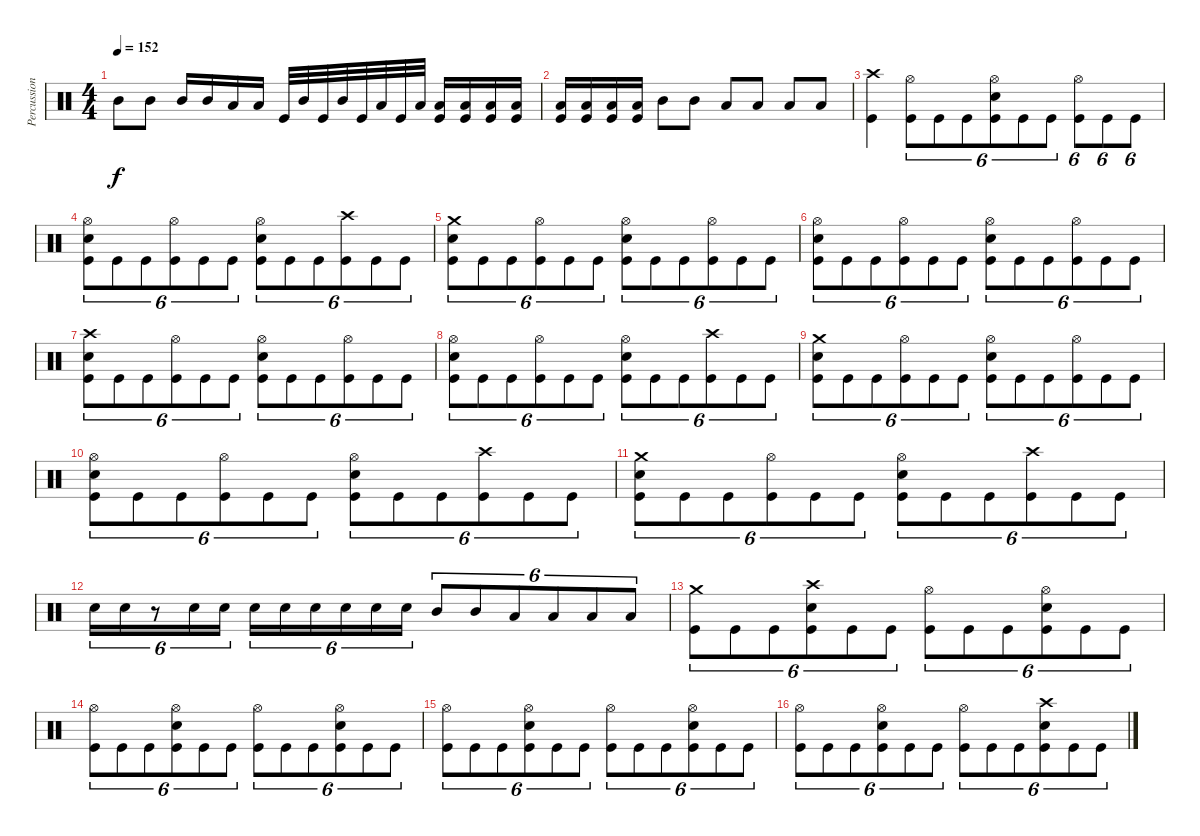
\track ("Percussion" "Percussion") {instrument percussion}
\staff {score}
\articulation defaults
\ts (4 4)
\tempo 152
\clef neutral
\ks c "Mid Tom (hit)".8{dy f} "Mid Tom (hit)".8 "Mid Tom (hit)".16 "Mid Tom (hit)".16 "Low Tom (hit)".16 "Low Tom (hit)".16 "Kick (hit)".32 "Mid Tom (hit)".32 "Kick (hit)".32 "Mid Tom (hit)".32 "Kick (hit)".32 "Low Tom (hit)".32 "Kick (hit)".32 "Low Tom (hit)".32
("Low Floor Tom (hit)" "Kick (hit)").16 ("Low Floor Tom (hit)" "Kick (hit)").16 ("Low Tom (hit)" "Kick (hit)").16 ("Low Tom (hit)" "Kick (hit)").16 |
("Low Floor Tom (hit)" "Kick (hit)").16 ("Low Tom (hit)" "Kick (hit)").16 ("Low Floor Tom (hit)" "Kick (hit)").16 ("Low Tom (hit)" "Kick (hit)").16 "Mid Tom (hit)".8 "Mid Tom (hit)".8 "Low Tom (hit)".8 "Low Tom (hit)".8 "Low Floor Tom (hit)".8 "Low Floor Tom (hit)".8 |
("Crash high (hit)" "Kick (hit)").4 ("Hi-Hat (open)" "Kick (hit)").8{tu (6 4)} "Kick (hit)".8{tu (6 4)} "Kick (hit)".8{tu (6 4)} ("Hi-Hat (open)" "Snare (hit) 2" "Kick (hit)").8{tu (6 4)} "Kick (hit)".8{tu (6 4)} "Kick (hit)".8{tu (6 4)} ("Hi-Hat (open)" "Kick (hit)").8{tu (6 4)} "Kick (hit)".8{tu (6 4)} "Kick (hit)".8{tu (6 4)} |
("Hi-Hat (open)" "Snare (hit) 2" "Kick (hit)").8{tu (6 4)} "Kick (hit)".8{tu (6 4)} "Kick (hit)".8{tu (6 4)} ("Hi-Hat (open)" "Kick (hit)").8{tu (6 4)} "Kick (hit)".8{tu (6 4)} "Kick (hit)".8{tu (6 4)} ("Hi-Hat (open)" "Snare (hit) 2" "Kick (hit)").8{tu (6 4)} "Kick (hit)".8{tu (6 4)} "Kick (hit)".8{tu (6 4)} ("Crash high (hit)" "Kick (hit)").8{tu (6 4)} "Kick (hit)".8{tu (6 4)} "Kick (hit)".8{tu (6 4)} |
("Crash medium (hit)" "Snare (hit) 2" "Kick (hit)").8{tu (6 4)} "Kick (hit)".8{tu (6 4)} "Kick (hit)".8{tu (6 4)} ("Hi-Hat (open)" "Kick (hit)").8{tu (6 4)} "Kick (hit)".8{tu (6 4)} "Kick (hit)".8{tu (6 4)} ("Hi-Hat (open)" "Snare (hit) 2" "Kick (hit)").8{tu (6 4)} "Kick (hit)".8{tu (6 4)} "Kick (hit)".8{tu (6 4)} ("Hi-Hat (open)" "Kick (hit)").8{tu (6 4)} "Kick (hit)".8{tu (6 4)} "Kick (hit)".8{tu (6 4)} |
("Hi-Hat (open)" "Snare (hit) 2" "Kick (hit)").8{tu (6 4)} "Kick (hit)".8{tu (6 4)} "Kick (hit)".8{tu (6 4)} ("Hi-Hat (open)" "Kick (hit)").8{tu (6 4)} "Kick (hit)".8{tu (6 4)} "Kick (hit)".8{tu (6 4)} ("Hi-Hat (open)" "Snare (hit) 2" "Kick (hit)").8{tu (6 4)} "Kick (hit)".8{tu (6 4)} "Kick (hit)".8{tu (6 4)} ("Hi-Hat (open)" "Kick (hit)").8{tu (6 4)} "Kick (hit)".8{tu (6 4)} "Kick (hit)".8{tu (6 4)} |
("Crash high (hit)" "Snare (hit) 2" "Kick (hit)").8{tu (6 4)} "Kick (hit)".8{tu (6 4)} "Kick (hit)".8{tu (6 4)} ("Hi-Hat (open)" "Kick (hit)").8{tu (6 4)} "Kick (hit)".8{tu (6 4)} "Kick (hit)".8{tu (6 4)} ("Hi-Hat (open)" "Snare (hit) 2" "Kick (hit)").8{tu (6 4)} "Kick (hit)".8{tu (6 4)} "Kick (hit)".8{tu (6 4)} ("Hi-Hat (open)" "Kick (hit)").8{tu (6 4)} "Kick (hit)".8{tu (6 4)} "Kick (hit)".8{tu (6 4)} |
("Hi-Hat (open)" "Snare (hit) 2" "Kick (hit)").8{tu (6 4)} "Kick (hit)".8{tu (6 4)} "Kick (hit)".8{tu (6 4)} ("Hi-Hat (open)" "Kick (hit)").8{tu (6 4)} "Kick (hit)".8{tu (6 4)} "Kick (hit)".8{tu (6 4)} ("Hi-Hat (open)" "Snare (hit) 2" "Kick (hit)").8{tu (6 4)} "Kick (hit)".8{tu (6 4)} "Kick (hit)".8{tu (6 4)} ("Crash high (hit)" "Kick (hit)").8{tu (6 4)} "Kick (hit)".8{tu (6 4)} "Kick (hit)".8{tu (6 4)} |
("Crash medium (hit)" "Snare (hit) 2" "Kick (hit)").8{tu (6 4)} "Kick (hit)".8{tu (6 4)} "Kick (hit)".8{tu (6 4)} ("Hi-Hat (open)" "Kick (hit)").8{tu (6 4)} "Kick (hit)".8{tu (6 4)} "Kick (hit)".8{tu (6 4)} ("Hi-Hat (open)" "Snare (hit) 2" "Kick (hit)").8{tu (6 4)} "Kick (hit)".8{tu (6 4)} "Kick (hit)".8{tu (6 4)} ("Hi-Hat (open)" "Kick (hit)").8{tu (6 4)} "Kick (hit)".8{tu (6 4)} "Kick (hit)".8{tu (6 4)} |
("Hi-Hat (open)" "Snare (hit) 2" "Kick (hit)").8{tu (6 4)} "Kick (hit)".8{tu (6 4)} "Kick (hit)".8{tu (6 4)} ("Hi-Hat (open)" "Kick (hit)").8{tu (6 4)} "Kick (hit)".8{tu (6 4)} "Kick (hit)".8{tu (6 4)} ("Hi-Hat (open)" "Snare (hit) 2" "Kick (hit)").8{tu (6 4)} "Kick (hit)".8{tu (6 4)} "Kick (hit)".8{tu (6 4)} ("Crash high (hit)" "Kick (hit)").8{tu (6 4)} "Kick (hit)".8{tu (6 4)} "Kick (hit)".8{tu (6 4)} |
("Crash medium (hit)" "Snare (hit) 2" "Kick (hit)").8{tu (6 4)} "Kick (hit)".8{tu (6 4)} "Kick (hit)".8{tu (6 4)} ("Hi-Hat (open)" "Kick (hit)").8{tu (6 4)} "Kick (hit)".8{tu (6 4)} "Kick (hit)".8{tu (6 4)} ("Hi-Hat (open)" "Snare (hit) 2" "Kick (hit)").8{tu (6 4)} "Kick (hit)".8{tu (6 4)} "Kick (hit)".8{tu (6 4)} ("Crash high (hit)" "Kick (hit)").8{tu (6 4)} "Kick (hit)".8{tu (6 4)} "Kick (hit)".8{tu (6 4)} |
"Snare (hit) 2".16{tu (6 4)} "Snare (hit) 2".16{tu (6 4)} r.8{tu (6 4)} "Snare (hit) 2".16{tu (6 4)} "Snare (hit) 2".16{tu (6 4)} "Snare (hit) 2".16{tu (6 4)} "Snare (hit) 2".16{tu (6 4)} "Snare (hit) 2".16{tu (6 4)} "Snare (hit) 2".16{tu (6 4)} "Snare (hit) 2".16{tu (6 4)} "Snare (hit) 2".16{tu (6 4)} "Mid Tom (hit)".8{tu (6 4)} "Mid Tom (hit)".8{tu (6 4)} "Low Tom (hit)".8{tu (6 4)} "Low Tom (hit)".8{tu (6 4)} "Low Floor Tom (hit)".8{tu (6 4)} "Low Floor Tom (hit)".8{tu (6 4)} |
("Crash medium (hit)" "Kick (hit)").8{tu (6 4)} "Kick (hit)".8{tu (6 4)} "Kick (hit)".8{tu (6 4)} ("Crash high (hit)" "Snare (hit) 2" "Kick (hit)").8{tu (6 4)} "Kick (hit)".8{tu (6 4)} "Kick (hit)".8{tu (6 4)} ("Hi-Hat (open)" "Kick (hit)").8{tu (6 4)} "Kick (hit)".8{tu (6 4)} "Kick (hit)".8{tu (6 4)} ("Hi-Hat (open)" "Snare (hit) 2" "Kick (hit)").8{tu (6 4)} "Kick (hit)".8{tu (6 4)} "Kick (hit)".8{tu (6 4)} |
("Hi-Hat (open)" "Kick (hit)").8{tu (6 4)} "Kick (hit)".8{tu (6 4)} "Kick (hit)".8{tu (6 4)} ("Hi-Hat (open)" "Snare (hit) 2" "Kick (hit)").8{tu (6 4)} "Kick (hit)".8{tu (6 4)} "Kick (hit)".8{tu (6 4)} ("Hi-Hat (open)" "Kick (hit)").8{tu (6 4)} "Kick (hit)".8{tu (6 4)} "Kick (hit)".8{tu (6 4)} ("Hi-Hat (open)" "Snare (hit) 2" "Kick (hit)").8{tu (6 4)} "Kick (hit)".8{tu (6 4)} "Kick (hit)".8{tu (6 4)} |
("Hi-Hat (open)" "Kick (hit)").8{tu (6 4)} "Kick (hit)".8{tu (6 4)} "Kick (hit)".8{tu (6 4)} ("Hi-Hat (open)" "Snare (hit) 2" "Kick (hit)").8{tu (6 4)} "Kick (hit)".8{tu (6 4)} "Kick (hit)".8{tu (6 4)} ("Hi-Hat (open)" "Kick (hit)").8{tu (6 4)} "Kick (hit)".8{tu (6 4)} "Kick (hit)".8{tu (6 4)} ("Hi-Hat (open)" "Snare (hit) 2" "Kick (hit)").8{tu (6 4)} "Kick (hit)".8{tu (6 4)} "Kick (hit)".8{tu (6 4)} |
("Hi-Hat (open)" "Kick (hit)").8{tu (6 4)} "Kick (hit)".8{tu (6 4)} "Kick (hit)".8{tu (6 4)} ("Hi-Hat (open)" "Snare (hit) 2" "Kick (hit)").8{tu (6 4)} "Kick (hit)".8{tu (6 4)} "Kick (hit)".8{tu (6 4)} ("Hi-Hat (open)" "Kick (hit)").8{tu (6 4)} "Kick (hit)".8{tu (6 4)} "Kick (hit)".8{tu (6 4)} ("Crash high (hit)" "Snare (hit) 2" "Kick (hit)").8{tu (6 4)} "Kick (hit)".8{tu (6 4)} "Kick (hit)".8{tu (6 4)}
